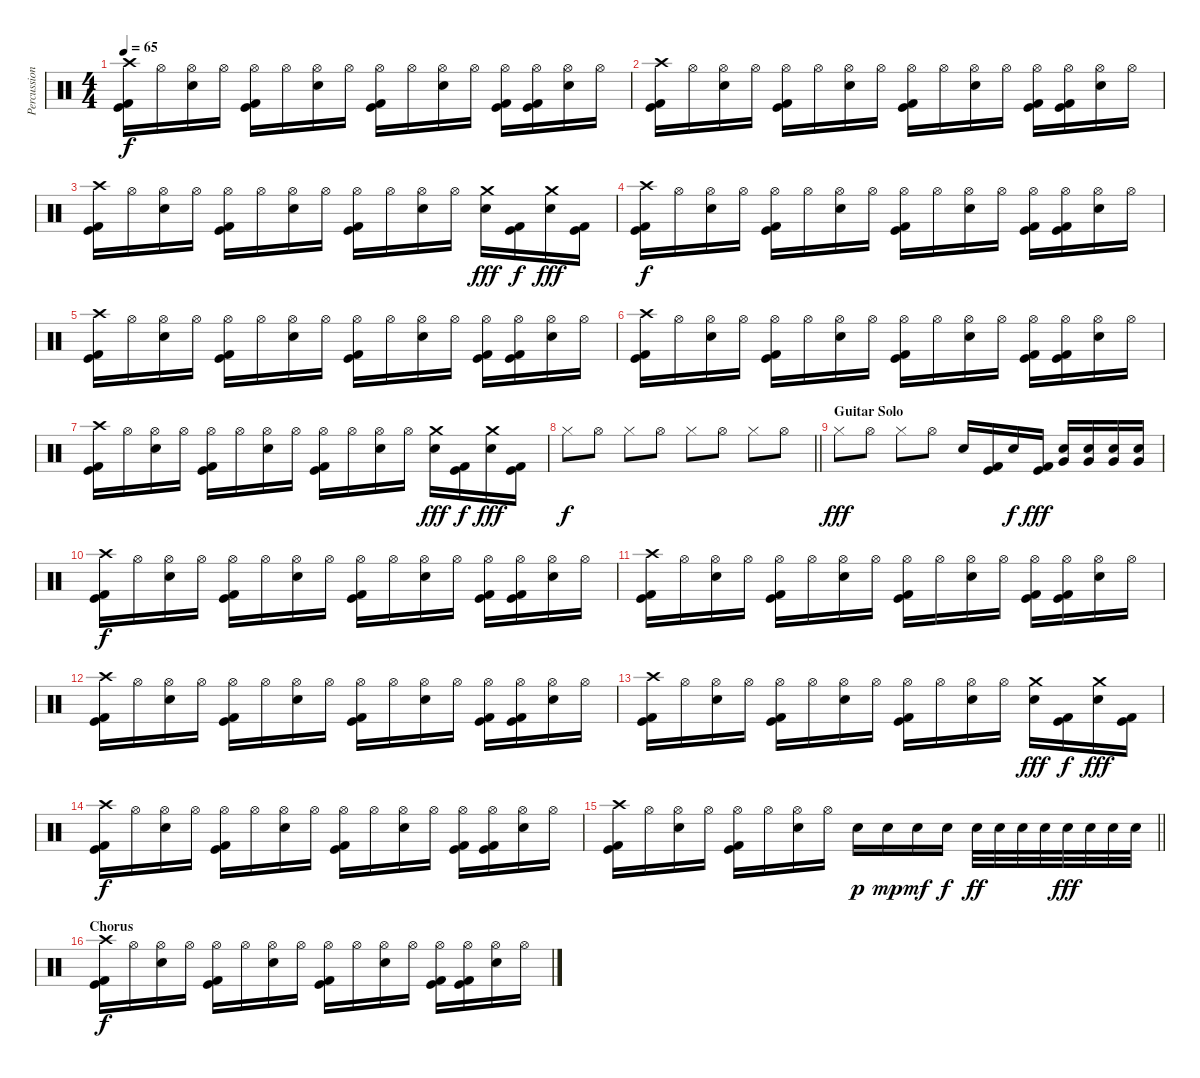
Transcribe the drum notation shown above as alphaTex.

\track ("Percussioni" "Percussion") {instrument percussion}
\staff {score}
\articulation defaults
\ts (4 4)
\tempo 65
\clef neutral
\ks c
("Crash high (hit)" "Kick (hit) 2" "Kick (hit)").16{dy f} "Hi-Hat (open)".16 ("Hi-Hat (open)" "Snare (hit) 2").16 "Hi-Hat (open)".16 ("Hi-Hat (open)" "Kick (hit) 2" "Kick (hit)").16 "Hi-Hat (open)".16 ("Hi-Hat (open)" "Snare (hit) 2").16 "Hi-Hat (open)".16 ("Hi-Hat (open)" "Kick (hit) 2" "Kick (hit)").16 "Hi-Hat (open)".16 ("Hi-Hat (open)" "Snare (hit) 2").16 "Hi-Hat (open)".16 ("Hi-Hat (open)" "Kick (hit) 2" "Kick (hit)").16 ("Hi-Hat (open)" "Kick (hit) 2" "Kick (hit)").16 ("Hi-Hat (open)" "Snare (hit) 2").16 "Hi-Hat (open)".16 |
("Crash high (hit)" "Kick (hit) 2" "Kick (hit)").16 "Hi-Hat (open)".16 ("Hi-Hat (open)" "Snare (hit) 2").16 "Hi-Hat (open)".16 ("Hi-Hat (open)" "Kick (hit) 2" "Kick (hit)").16 "Hi-Hat (open)".16 ("Hi-Hat (open)" "Snare (hit) 2").16 "Hi-Hat (open)".16 ("Hi-Hat (open)" "Kick (hit) 2" "Kick (hit)").16 "Hi-Hat (open)".16 ("Hi-Hat (open)" "Snare (hit) 2").16 "Hi-Hat (open)".16 ("Hi-Hat (open)" "Kick (hit) 2" "Kick (hit)").16 ("Hi-Hat (open)" "Kick (hit) 2" "Kick (hit)").16 ("Hi-Hat (open)" "Snare (hit) 2").16 "Hi-Hat (open)".16 |
("Crash high (hit)" "Kick (hit) 2" "Kick (hit)").16 "Hi-Hat (open)".16 ("Hi-Hat (open)" "Snare (hit) 2").16 "Hi-Hat (open)".16 ("Hi-Hat (open)" "Kick (hit) 2" "Kick (hit)").16 "Hi-Hat (open)".16 ("Hi-Hat (open)" "Snare (hit) 2").16 "Hi-Hat (open)".16 ("Hi-Hat (open)" "Kick (hit) 2" "Kick (hit)").16 "Hi-Hat (open)".16 ("Hi-Hat (open)" "Snare (hit) 2").16 "Hi-Hat (open)".16 ("Crash medium (hit)" "Snare (hit) 2").16{dy fff} ("Kick (hit) 2" "Kick (hit)").16{dy f} ("Crash medium (hit)" "Snare (hit) 2").16{dy fff} ("Kick (hit) 2" "Kick (hit)").16 |
("Crash high (hit)" "Kick (hit) 2" "Kick (hit)").16{dy f} "Hi-Hat (open)".16 ("Hi-Hat (open)" "Snare (hit) 2").16 "Hi-Hat (open)".16 ("Hi-Hat (open)" "Kick (hit) 2" "Kick (hit)").16 "Hi-Hat (open)".16 ("Hi-Hat (open)" "Snare (hit) 2").16 "Hi-Hat (open)".16 ("Hi-Hat (open)" "Kick (hit) 2" "Kick (hit)").16 "Hi-Hat (open)".16 ("Hi-Hat (open)" "Snare (hit) 2").16 "Hi-Hat (open)".16 ("Hi-Hat (open)" "Kick (hit) 2" "Kick (hit)").16 ("Hi-Hat (open)" "Kick (hit) 2" "Kick (hit)").16 ("Hi-Hat (open)" "Snare (hit) 2").16 "Hi-Hat (open)".16 |
("Crash high (hit)" "Kick (hit) 2" "Kick (hit)").16 "Hi-Hat (open)".16 ("Hi-Hat (open)" "Snare (hit) 2").16 "Hi-Hat (open)".16 ("Hi-Hat (open)" "Kick (hit) 2" "Kick (hit)").16 "Hi-Hat (open)".16 ("Hi-Hat (open)" "Snare (hit) 2").16 "Hi-Hat (open)".16 ("Hi-Hat (open)" "Kick (hit) 2" "Kick (hit)").16 "Hi-Hat (open)".16 ("Hi-Hat (open)" "Snare (hit) 2").16 "Hi-Hat (open)".16 ("Hi-Hat (open)" "Kick (hit) 2" "Kick (hit)").16 ("Hi-Hat (open)" "Kick (hit) 2" "Kick (hit)").16 ("Hi-Hat (open)" "Snare (hit) 2").16 "Hi-Hat (open)".16 |
("Crash high (hit)" "Kick (hit) 2" "Kick (hit)").16 "Hi-Hat (open)".16 ("Hi-Hat (open)" "Snare (hit) 2").16 "Hi-Hat (open)".16 ("Hi-Hat (open)" "Kick (hit) 2" "Kick (hit)").16 "Hi-Hat (open)".16 ("Hi-Hat (open)" "Snare (hit) 2").16 "Hi-Hat (open)".16 ("Hi-Hat (open)" "Kick (hit) 2" "Kick (hit)").16 "Hi-Hat (open)".16 ("Hi-Hat (open)" "Snare (hit) 2").16 "Hi-Hat (open)".16 ("Hi-Hat (open)" "Kick (hit) 2" "Kick (hit)").16 ("Hi-Hat (open)" "Kick (hit) 2" "Kick (hit)").16 ("Hi-Hat (open)" "Snare (hit) 2").16 "Hi-Hat (open)".16 |
("Crash high (hit)" "Kick (hit) 2" "Kick (hit)").16 "Hi-Hat (open)".16 ("Hi-Hat (open)" "Snare (hit) 2").16 "Hi-Hat (open)".16 ("Hi-Hat (open)" "Kick (hit) 2" "Kick (hit)").16 "Hi-Hat (open)".16 ("Hi-Hat (open)" "Snare (hit) 2").16 "Hi-Hat (open)".16 ("Hi-Hat (open)" "Kick (hit) 2" "Kick (hit)").16 "Hi-Hat (open)".16 ("Hi-Hat (open)" "Snare (hit) 2").16 "Hi-Hat (open)".16 ("Crash medium (hit)" "Snare (hit) 2").16{dy fff} ("Kick (hit) 2" "Kick (hit)").16{dy f} ("Crash medium (hit)" "Snare (hit) 2").16{dy fff} ("Kick (hit) 2" "Kick (hit)").16 |
\barLineRight lightlight "Hi-Hat (closed)".8{dy f} "Hi-Hat (open)".8 "Hi-Hat (closed)".8 "Hi-Hat (open)".8 "Hi-Hat (closed)".8 "Hi-Hat (open)".8 "Hi-Hat (closed)".8 "Hi-Hat (open)".8
|
\section ("" "Guitar Solo")
"Hi-Hat (closed)".8{dy fff} "Hi-Hat (open)".8 "Hi-Hat (closed)".8 "Hi-Hat (open)".8 "Snare (hit) 2".16 ("Kick (hit) 2" "Kick (hit)").16 "Snare (hit) 2".16{dy f} ("Kick (hit) 2" "Kick (hit)").16{dy fff} ("Very Low Tom (hit)" "Snare (hit) 2").16 ("Very Low Tom (hit)" "Snare (hit) 2").16 ("Very Low Tom (hit)" "Snare (hit) 2").16 ("Very Low Tom (hit)" "Snare (hit) 2").16 |
("Crash high (hit)" "Kick (hit) 2" "Kick (hit)").16{dy f} "Hi-Hat (open)".16 ("Hi-Hat (open)" "Snare (hit) 2").16 "Hi-Hat (open)".16 ("Hi-Hat (open)" "Kick (hit) 2" "Kick (hit)").16 "Hi-Hat (open)".16 ("Hi-Hat (open)" "Snare (hit) 2").16 "Hi-Hat (open)".16 ("Hi-Hat (open)" "Kick (hit) 2" "Kick (hit)").16 "Hi-Hat (open)".16 ("Hi-Hat (open)" "Snare (hit) 2").16 "Hi-Hat (open)".16 ("Hi-Hat (open)" "Kick (hit) 2" "Kick (hit)").16 ("Hi-Hat (open)" "Kick (hit) 2" "Kick (hit)").16 ("Hi-Hat (open)" "Snare (hit) 2").16 "Hi-Hat (open)".16 |
("Crash high (hit)" "Kick (hit) 2" "Kick (hit)").16 "Hi-Hat (open)".16 ("Hi-Hat (open)" "Snare (hit) 2").16 "Hi-Hat (open)".16 ("Hi-Hat (open)" "Kick (hit) 2" "Kick (hit)").16 "Hi-Hat (open)".16 ("Hi-Hat (open)" "Snare (hit) 2").16 "Hi-Hat (open)".16 ("Hi-Hat (open)" "Kick (hit) 2" "Kick (hit)").16 "Hi-Hat (open)".16 ("Hi-Hat (open)" "Snare (hit) 2").16 "Hi-Hat (open)".16 ("Hi-Hat (open)" "Kick (hit) 2" "Kick (hit)").16 ("Hi-Hat (open)" "Kick (hit) 2" "Kick (hit)").16 ("Hi-Hat (open)" "Snare (hit) 2").16 "Hi-Hat (open)".16 |
("Crash high (hit)" "Kick (hit) 2" "Kick (hit)").16 "Hi-Hat (open)".16 ("Hi-Hat (open)" "Snare (hit) 2").16 "Hi-Hat (open)".16 ("Hi-Hat (open)" "Kick (hit) 2" "Kick (hit)").16 "Hi-Hat (open)".16 ("Hi-Hat (open)" "Snare (hit) 2").16 "Hi-Hat (open)".16 ("Hi-Hat (open)" "Kick (hit) 2" "Kick (hit)").16 "Hi-Hat (open)".16 ("Hi-Hat (open)" "Snare (hit) 2").16 "Hi-Hat (open)".16 ("Hi-Hat (open)" "Kick (hit) 2" "Kick (hit)").16 ("Hi-Hat (open)" "Kick (hit) 2" "Kick (hit)").16 ("Hi-Hat (open)" "Snare (hit) 2").16 "Hi-Hat (open)".16 |
("Crash high (hit)" "Kick (hit) 2" "Kick (hit)").16 "Hi-Hat (open)".16 ("Hi-Hat (open)" "Snare (hit) 2").16 "Hi-Hat (open)".16 ("Hi-Hat (open)" "Kick (hit) 2" "Kick (hit)").16 "Hi-Hat (open)".16 ("Hi-Hat (open)" "Snare (hit) 2").16 "Hi-Hat (open)".16 ("Hi-Hat (open)" "Kick (hit) 2" "Kick (hit)").16 "Hi-Hat (open)".16 ("Hi-Hat (open)" "Snare (hit) 2").16 "Hi-Hat (open)".16 ("Crash medium (hit)" "Snare (hit) 2").16{dy fff} ("Kick (hit) 2" "Kick (hit)").16{dy f} ("Crash medium (hit)" "Snare (hit) 2").16{dy fff} ("Kick (hit) 2" "Kick (hit)").16 |
("Crash high (hit)" "Kick (hit) 2" "Kick (hit)").16{dy f} "Hi-Hat (open)".16 ("Hi-Hat (open)" "Snare (hit) 2").16 "Hi-Hat (open)".16 ("Hi-Hat (open)" "Kick (hit) 2" "Kick (hit)").16 "Hi-Hat (open)".16 ("Hi-Hat (open)" "Snare (hit) 2").16 "Hi-Hat (open)".16 ("Hi-Hat (open)" "Kick (hit) 2" "Kick (hit)").16 "Hi-Hat (open)".16 ("Hi-Hat (open)" "Snare (hit) 2").16 "Hi-Hat (open)".16 ("Hi-Hat (open)" "Kick (hit) 2" "Kick (hit)").16 ("Hi-Hat (open)" "Kick (hit) 2" "Kick (hit)").16 ("Hi-Hat (open)" "Snare (hit) 2").16 "Hi-Hat (open)".16 |
\barLineRight lightlight
("Crash high (hit)" "Kick (hit) 2" "Kick (hit)").16 "Hi-Hat (open)".16 ("Hi-Hat (open)" "Snare (hit) 2").16 "Hi-Hat (open)".16 ("Hi-Hat (open)" "Kick (hit) 2" "Kick (hit)").16 "Hi-Hat (open)".16 ("Hi-Hat (open)" "Snare (hit) 2").16 "Hi-Hat (open)".16 "Snare (hit) 2".16{dy p} "Snare (hit) 2".16{dy mp} "Snare (hit) 2".16{dy mf} "Snare (hit) 2".16{dy f} "Snare (hit) 2".32{dy ff} "Snare (hit) 2".32 "Snare (hit) 2".32 "Snare (hit) 2".32 "Snare (hit) 2".32{dy fff} "Snare (hit) 2".32 "Snare (hit) 2".32 "Snare (hit) 2".32 |
\section ("" "Chorus")
("Crash high (hit)" "Kick (hit) 2" "Kick (hit)").16{dy f} "Hi-Hat (open)".16 ("Hi-Hat (open)" "Snare (hit) 2").16 "Hi-Hat (open)".16 ("Hi-Hat (open)" "Kick (hit) 2" "Kick (hit)").16 "Hi-Hat (open)".16 ("Hi-Hat (open)" "Snare (hit) 2").16 "Hi-Hat (open)".16 ("Hi-Hat (open)" "Kick (hit) 2" "Kick (hit)").16 "Hi-Hat (open)".16 ("Hi-Hat (open)" "Snare (hit) 2").16 "Hi-Hat (open)".16 ("Hi-Hat (open)" "Kick (hit) 2" "Kick (hit)").16 ("Hi-Hat (open)" "Kick (hit) 2" "Kick (hit)").16 ("Hi-Hat (open)" "Snare (hit) 2").16 "Hi-Hat (open)".16
